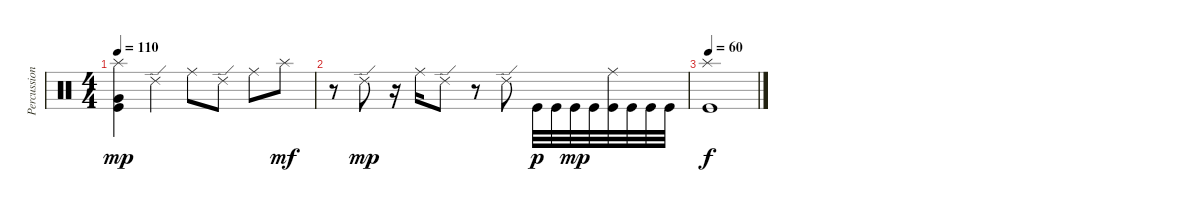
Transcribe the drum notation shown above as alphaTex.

\track ("Percussion" "Percussion") {instrument percussion}
\staff {score}
\articulation defaults
\ts (4 4)
\tempo 110
\clef neutral
\ks c
("Splash (hit)" "Very Low Tom (hit)" "Kick (hit)").4{dy mp} "Ride (edge) 2".4 "Ride (middle)".8 "Ride (edge) 2".8 "Ride (middle)".8 "Splash (hit)".8{dy mf} |
r.8 "Ride (edge) 2".8{dy mp} r.16 "Ride (middle)".16 "Ride (edge) 2".8 r.8 "Ride (edge) 2".8 "Kick (hit)".32{dy p} "Kick (hit)".32 "Kick (hit)".32{dy mp} "Kick (hit)".32 ("Ride (middle)" "Kick (hit)").32 "Kick (hit)".32 "Kick (hit)".32 "Kick (hit)".32 |
\tempo 60
("Splash (hit)" "Kick (hit)").1{dy f volume 0}
